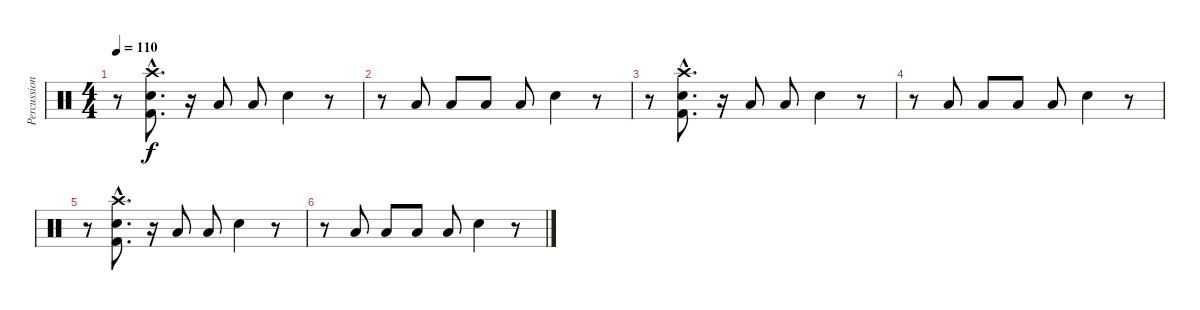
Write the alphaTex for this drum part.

\track ("Percussioni" "Percussion") {instrument percussion}
\staff {score}
\articulation defaults
\ts (4 4)
\tempo 110
\clef neutral
\ks c
r.8{dy f} ("Crash high (hit)"{hac} "Electric Snare (hit)"{hac} "Kick (hit) 2"{hac}).8{d} r.16 "Low Tom (hit)".8 "Low Tom (hit)".8 "Electric Snare (hit)".4 r.8 |
r.8 "Low Tom (hit)".8 "Low Tom (hit)".8 "Low Tom (hit)".8 "Low Tom (hit)".8 "Electric Snare (hit)".4 r.8 |
r.8{volume 2} ("Crash high (hit)"{hac} "Electric Snare (hit)"{hac} "Kick (hit) 2"{hac}).8{d} r.16 "Low Tom (hit)".8 "Low Tom (hit)".8 "Electric Snare (hit)".4 r.8 |
r.8 "Low Tom (hit)".8 "Low Tom (hit)".8 "Low Tom (hit)".8 "Low Tom (hit)".8 "Electric Snare (hit)".4 r.8 |
r.8 ("Crash high (hit)"{hac} "Electric Snare (hit)"{hac} "Kick (hit) 2"{hac}).8{d} r.16 "Low Tom (hit)".8 "Low Tom (hit)".8 "Electric Snare (hit)".4 r.8 |
r.8 "Low Tom (hit)".8 "Low Tom (hit)".8 "Low Tom (hit)".8 "Low Tom (hit)".8 "Electric Snare (hit)".4 r.8
